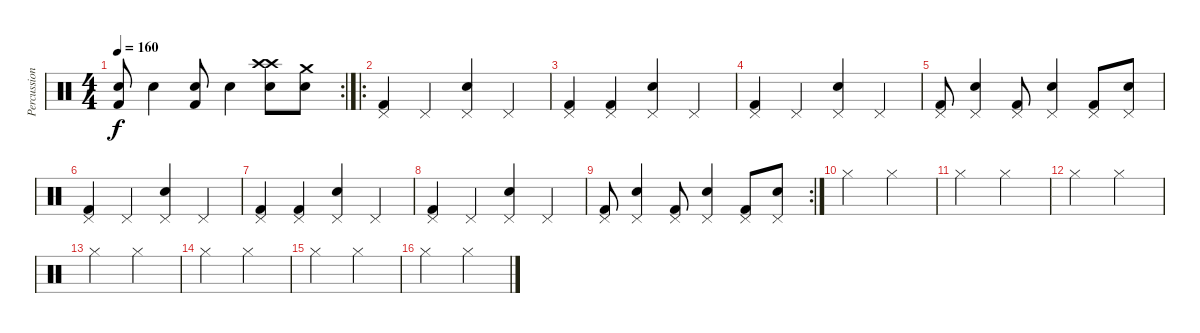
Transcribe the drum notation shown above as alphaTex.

\track ("Percussion" "Percussion") {instrument percussion}
\staff {score}
\articulation defaults
\rc 2
\ts (4 4)
\tempo 160
\clef neutral
\ks c
("Snare (hit) 2" "Kick (hit) 2").8{dy f} "Snare (hit) 2".4 ("Snare (hit) 2" "Kick (hit) 2").8 "Snare (hit) 2".4 ("Crash high (hit)" "Snare (hit) 2" "Crash high (hit)").8 ("Snare (hit) 2" "Crash medium (hit)").8 |
\ro
("Kick (hit) 2" "Pedal Hi-Hat (hit)").4 "Pedal Hi-Hat (hit)".4 ("Snare (hit) 2" "Pedal Hi-Hat (hit)").4 "Pedal Hi-Hat (hit)".4 |
("Kick (hit) 2" "Pedal Hi-Hat (hit)").4 ("Kick (hit) 2" "Pedal Hi-Hat (hit)").4 ("Snare (hit) 2" "Pedal Hi-Hat (hit)").4 "Pedal Hi-Hat (hit)".4 |
("Kick (hit) 2" "Pedal Hi-Hat (hit)").4 "Pedal Hi-Hat (hit)".4 ("Snare (hit) 2" "Pedal Hi-Hat (hit)").4 "Pedal Hi-Hat (hit)".4 |
("Kick (hit) 2" "Pedal Hi-Hat (hit)").8 ("Snare (hit) 2" "Pedal Hi-Hat (hit)").4 ("Kick (hit) 2" "Pedal Hi-Hat (hit)").8 ("Snare (hit) 2" "Pedal Hi-Hat (hit)").4 ("Kick (hit) 2" "Pedal Hi-Hat (hit)").8 ("Snare (hit) 2" "Pedal Hi-Hat (hit)").8 |
("Kick (hit) 2" "Pedal Hi-Hat (hit)").4 "Pedal Hi-Hat (hit)".4 ("Snare (hit) 2" "Pedal Hi-Hat (hit)").4 "Pedal Hi-Hat (hit)".4 |
("Kick (hit) 2" "Pedal Hi-Hat (hit)").4 ("Kick (hit) 2" "Pedal Hi-Hat (hit)").4 ("Snare (hit) 2" "Pedal Hi-Hat (hit)").4 "Pedal Hi-Hat (hit)".4 |
("Kick (hit) 2" "Pedal Hi-Hat (hit)").4 "Pedal Hi-Hat (hit)".4 ("Snare (hit) 2" "Pedal Hi-Hat (hit)").4 "Pedal Hi-Hat (hit)".4 |
\rc 2
("Kick (hit) 2" "Pedal Hi-Hat (hit)").8 ("Snare (hit) 2" "Pedal Hi-Hat (hit)").4 ("Kick (hit) 2" "Pedal Hi-Hat (hit)").8 ("Snare (hit) 2" "Pedal Hi-Hat (hit)").4 ("Kick (hit) 2" "Pedal Hi-Hat (hit)").8 ("Snare (hit) 2" "Pedal Hi-Hat (hit)").8 |
"Hi-Hat (closed)".2 "Hi-Hat (closed)".2 |
"Hi-Hat (closed)".2 "Hi-Hat (closed)".2 |
"Hi-Hat (closed)".2 "Hi-Hat (closed)".2 |
"Hi-Hat (closed)".2 "Hi-Hat (closed)".2 |
"Hi-Hat (closed)".2 "Hi-Hat (closed)".2 |
"Hi-Hat (closed)".2 "Hi-Hat (closed)".2 |
"Hi-Hat (closed)".2 "Hi-Hat (closed)".2
